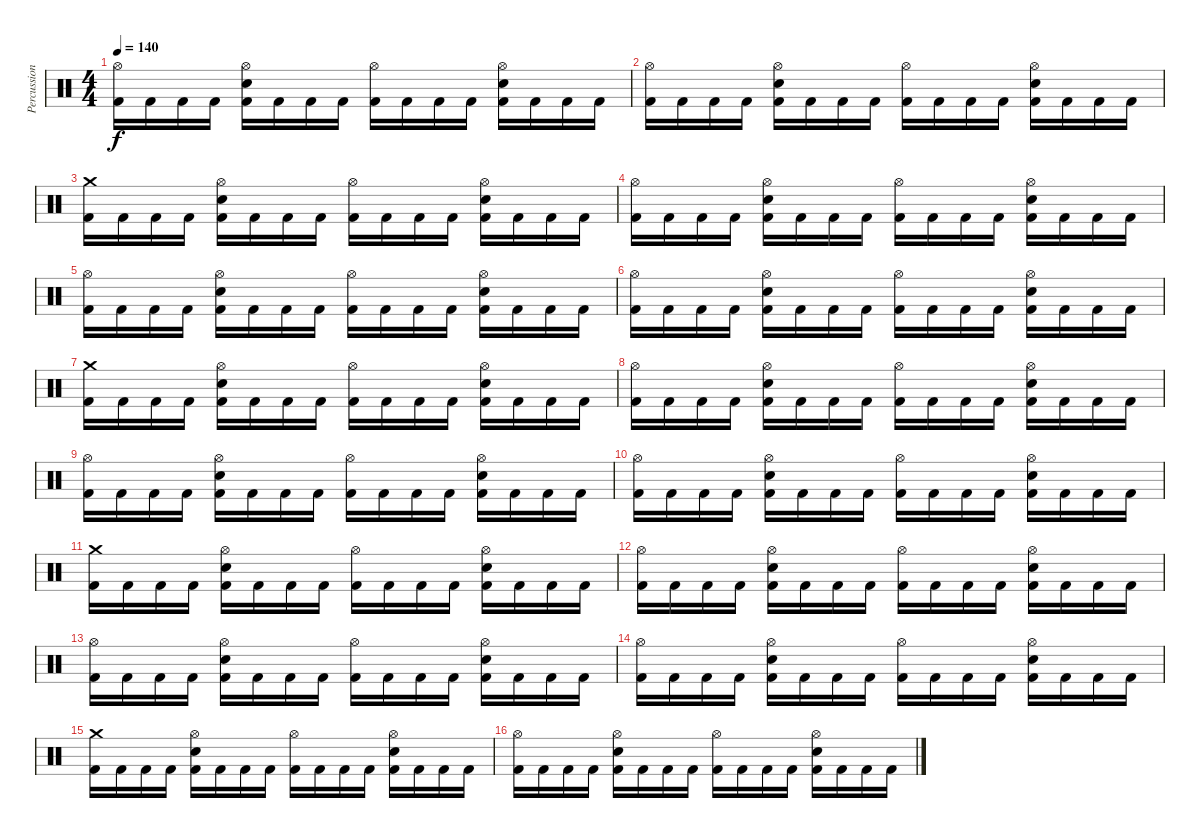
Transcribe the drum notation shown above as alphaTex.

\track ("Percussion" "Percussion") {instrument percussion}
\staff {score}
\articulation defaults
\ts (4 4)
\tempo 140
\clef neutral
\ks c
("Hi-Hat (open)" "Kick (hit) 2").16{dy f} "Kick (hit) 2".16 "Kick (hit) 2".16 "Kick (hit) 2".16 ("Hi-Hat (open)" "Electric Snare (hit)" "Kick (hit) 2").16 "Kick (hit) 2".16 "Kick (hit) 2".16 "Kick (hit) 2".16 ("Hi-Hat (open)" "Kick (hit) 2").16 "Kick (hit) 2".16 "Kick (hit) 2".16 "Kick (hit) 2".16 ("Hi-Hat (open)" "Electric Snare (hit)" "Kick (hit) 2").16 "Kick (hit) 2".16 "Kick (hit) 2".16 "Kick (hit) 2".16 |
("Hi-Hat (open)" "Kick (hit) 2").16 "Kick (hit) 2".16 "Kick (hit) 2".16 "Kick (hit) 2".16 ("Hi-Hat (open)" "Electric Snare (hit)" "Kick (hit) 2").16 "Kick (hit) 2".16 "Kick (hit) 2".16 "Kick (hit) 2".16 ("Hi-Hat (open)" "Kick (hit) 2").16 "Kick (hit) 2".16 "Kick (hit) 2".16 "Kick (hit) 2".16 ("Hi-Hat (open)" "Electric Snare (hit)" "Kick (hit) 2").16 "Kick (hit) 2".16 "Kick (hit) 2".16 "Kick (hit) 2".16 |
("Crash medium (hit)" "Kick (hit) 2").16 "Kick (hit) 2".16 "Kick (hit) 2".16 "Kick (hit) 2".16 ("Hi-Hat (open)" "Electric Snare (hit)" "Kick (hit) 2").16 "Kick (hit) 2".16 "Kick (hit) 2".16 "Kick (hit) 2".16 ("Hi-Hat (open)" "Kick (hit) 2").16 "Kick (hit) 2".16 "Kick (hit) 2".16 "Kick (hit) 2".16 ("Hi-Hat (open)" "Electric Snare (hit)" "Kick (hit) 2").16 "Kick (hit) 2".16 "Kick (hit) 2".16 "Kick (hit) 2".16 |
("Hi-Hat (open)" "Kick (hit) 2").16 "Kick (hit) 2".16 "Kick (hit) 2".16 "Kick (hit) 2".16 ("Hi-Hat (open)" "Electric Snare (hit)" "Kick (hit) 2").16 "Kick (hit) 2".16 "Kick (hit) 2".16 "Kick (hit) 2".16 ("Hi-Hat (open)" "Kick (hit) 2").16 "Kick (hit) 2".16 "Kick (hit) 2".16 "Kick (hit) 2".16 ("Hi-Hat (open)" "Electric Snare (hit)" "Kick (hit) 2").16 "Kick (hit) 2".16 "Kick (hit) 2".16 "Kick (hit) 2".16 |
("Hi-Hat (open)" "Kick (hit) 2").16 "Kick (hit) 2".16 "Kick (hit) 2".16 "Kick (hit) 2".16 ("Hi-Hat (open)" "Electric Snare (hit)" "Kick (hit) 2").16 "Kick (hit) 2".16 "Kick (hit) 2".16 "Kick (hit) 2".16 ("Hi-Hat (open)" "Kick (hit) 2").16 "Kick (hit) 2".16 "Kick (hit) 2".16 "Kick (hit) 2".16 ("Hi-Hat (open)" "Electric Snare (hit)" "Kick (hit) 2").16 "Kick (hit) 2".16 "Kick (hit) 2".16 "Kick (hit) 2".16 |
("Hi-Hat (open)" "Kick (hit) 2").16 "Kick (hit) 2".16 "Kick (hit) 2".16 "Kick (hit) 2".16 ("Hi-Hat (open)" "Electric Snare (hit)" "Kick (hit) 2").16 "Kick (hit) 2".16 "Kick (hit) 2".16 "Kick (hit) 2".16 ("Hi-Hat (open)" "Kick (hit) 2").16 "Kick (hit) 2".16 "Kick (hit) 2".16 "Kick (hit) 2".16 ("Hi-Hat (open)" "Electric Snare (hit)" "Kick (hit) 2").16 "Kick (hit) 2".16 "Kick (hit) 2".16 "Kick (hit) 2".16 |
("Crash medium (hit)" "Kick (hit) 2").16 "Kick (hit) 2".16 "Kick (hit) 2".16 "Kick (hit) 2".16 ("Hi-Hat (open)" "Electric Snare (hit)" "Kick (hit) 2").16 "Kick (hit) 2".16 "Kick (hit) 2".16 "Kick (hit) 2".16 ("Hi-Hat (open)" "Kick (hit) 2").16 "Kick (hit) 2".16 "Kick (hit) 2".16 "Kick (hit) 2".16 ("Hi-Hat (open)" "Electric Snare (hit)" "Kick (hit) 2").16 "Kick (hit) 2".16 "Kick (hit) 2".16 "Kick (hit) 2".16 |
("Hi-Hat (open)" "Kick (hit) 2").16 "Kick (hit) 2".16 "Kick (hit) 2".16 "Kick (hit) 2".16 ("Hi-Hat (open)" "Electric Snare (hit)" "Kick (hit) 2").16 "Kick (hit) 2".16 "Kick (hit) 2".16 "Kick (hit) 2".16 ("Hi-Hat (open)" "Kick (hit) 2").16 "Kick (hit) 2".16 "Kick (hit) 2".16 "Kick (hit) 2".16 ("Hi-Hat (open)" "Electric Snare (hit)" "Kick (hit) 2").16 "Kick (hit) 2".16 "Kick (hit) 2".16 "Kick (hit) 2".16 |
("Hi-Hat (open)" "Kick (hit) 2").16 "Kick (hit) 2".16 "Kick (hit) 2".16 "Kick (hit) 2".16 ("Hi-Hat (open)" "Electric Snare (hit)" "Kick (hit) 2").16 "Kick (hit) 2".16 "Kick (hit) 2".16 "Kick (hit) 2".16 ("Hi-Hat (open)" "Kick (hit) 2").16 "Kick (hit) 2".16 "Kick (hit) 2".16 "Kick (hit) 2".16 ("Hi-Hat (open)" "Electric Snare (hit)" "Kick (hit) 2").16 "Kick (hit) 2".16 "Kick (hit) 2".16 "Kick (hit) 2".16 |
("Hi-Hat (open)" "Kick (hit) 2").16 "Kick (hit) 2".16 "Kick (hit) 2".16 "Kick (hit) 2".16 ("Hi-Hat (open)" "Electric Snare (hit)" "Kick (hit) 2").16 "Kick (hit) 2".16 "Kick (hit) 2".16 "Kick (hit) 2".16 ("Hi-Hat (open)" "Kick (hit) 2").16 "Kick (hit) 2".16 "Kick (hit) 2".16 "Kick (hit) 2".16 ("Hi-Hat (open)" "Electric Snare (hit)" "Kick (hit) 2").16 "Kick (hit) 2".16 "Kick (hit) 2".16 "Kick (hit) 2".16 |
("Crash medium (hit)" "Kick (hit) 2").16 "Kick (hit) 2".16 "Kick (hit) 2".16 "Kick (hit) 2".16 ("Hi-Hat (open)" "Electric Snare (hit)" "Kick (hit) 2").16 "Kick (hit) 2".16 "Kick (hit) 2".16 "Kick (hit) 2".16 ("Hi-Hat (open)" "Kick (hit) 2").16 "Kick (hit) 2".16 "Kick (hit) 2".16 "Kick (hit) 2".16 ("Hi-Hat (open)" "Electric Snare (hit)" "Kick (hit) 2").16 "Kick (hit) 2".16 "Kick (hit) 2".16 "Kick (hit) 2".16 |
("Hi-Hat (open)" "Kick (hit) 2").16 "Kick (hit) 2".16 "Kick (hit) 2".16 "Kick (hit) 2".16 ("Hi-Hat (open)" "Electric Snare (hit)" "Kick (hit) 2").16 "Kick (hit) 2".16 "Kick (hit) 2".16 "Kick (hit) 2".16 ("Hi-Hat (open)" "Kick (hit) 2").16 "Kick (hit) 2".16 "Kick (hit) 2".16 "Kick (hit) 2".16 ("Hi-Hat (open)" "Electric Snare (hit)" "Kick (hit) 2").16 "Kick (hit) 2".16 "Kick (hit) 2".16 "Kick (hit) 2".16 |
("Hi-Hat (open)" "Kick (hit) 2").16 "Kick (hit) 2".16 "Kick (hit) 2".16 "Kick (hit) 2".16 ("Hi-Hat (open)" "Electric Snare (hit)" "Kick (hit) 2").16 "Kick (hit) 2".16 "Kick (hit) 2".16 "Kick (hit) 2".16 ("Hi-Hat (open)" "Kick (hit) 2").16 "Kick (hit) 2".16 "Kick (hit) 2".16 "Kick (hit) 2".16 ("Hi-Hat (open)" "Electric Snare (hit)" "Kick (hit) 2").16 "Kick (hit) 2".16 "Kick (hit) 2".16 "Kick (hit) 2".16 |
("Hi-Hat (open)" "Kick (hit) 2").16 "Kick (hit) 2".16 "Kick (hit) 2".16 "Kick (hit) 2".16 ("Hi-Hat (open)" "Electric Snare (hit)" "Kick (hit) 2").16 "Kick (hit) 2".16 "Kick (hit) 2".16 "Kick (hit) 2".16 ("Hi-Hat (open)" "Kick (hit) 2").16 "Kick (hit) 2".16 "Kick (hit) 2".16 "Kick (hit) 2".16 ("Hi-Hat (open)" "Electric Snare (hit)" "Kick (hit) 2").16 "Kick (hit) 2".16 "Kick (hit) 2".16 "Kick (hit) 2".16 |
("Crash medium (hit)" "Kick (hit) 2").16 "Kick (hit) 2".16 "Kick (hit) 2".16 "Kick (hit) 2".16 ("Hi-Hat (open)" "Electric Snare (hit)" "Kick (hit) 2").16 "Kick (hit) 2".16 "Kick (hit) 2".16 "Kick (hit) 2".16 ("Hi-Hat (open)" "Kick (hit) 2").16 "Kick (hit) 2".16 "Kick (hit) 2".16 "Kick (hit) 2".16 ("Hi-Hat (open)" "Electric Snare (hit)" "Kick (hit) 2").16 "Kick (hit) 2".16 "Kick (hit) 2".16 "Kick (hit) 2".16 |
("Hi-Hat (open)" "Kick (hit) 2").16 "Kick (hit) 2".16 "Kick (hit) 2".16 "Kick (hit) 2".16 ("Hi-Hat (open)" "Electric Snare (hit)" "Kick (hit) 2").16 "Kick (hit) 2".16 "Kick (hit) 2".16 "Kick (hit) 2".16 ("Hi-Hat (open)" "Kick (hit) 2").16 "Kick (hit) 2".16 "Kick (hit) 2".16 "Kick (hit) 2".16 ("Hi-Hat (open)" "Electric Snare (hit)" "Kick (hit) 2").16 "Kick (hit) 2".16 "Kick (hit) 2".16 "Kick (hit) 2".16
